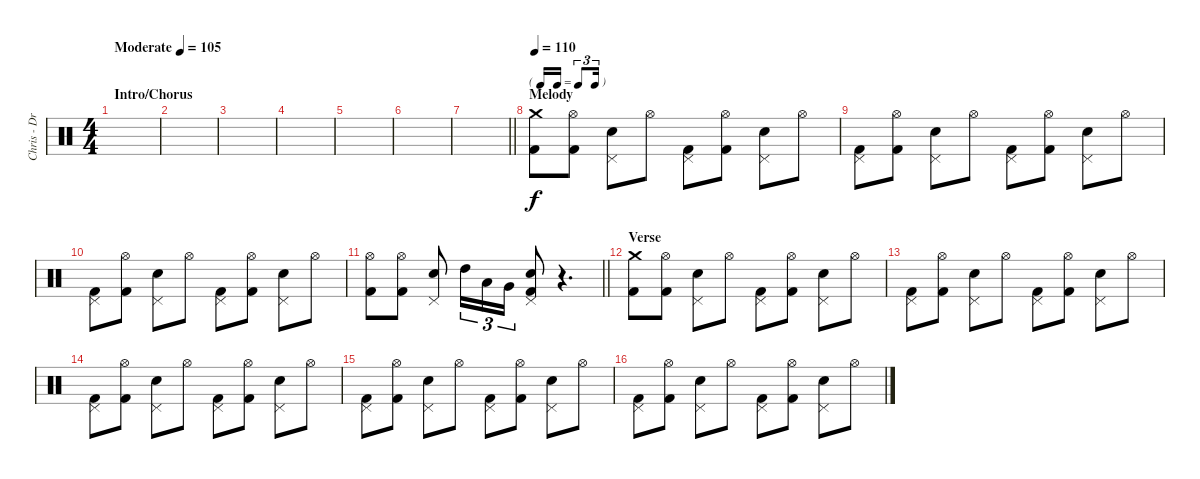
\track ("Chris - Drums" "Chris - Dr") {instrument percussion}
\staff {score}
\articulation defaults
\ts (4 4)
\section ("" "Intro/Chorus")
\tempo (105 "Moderate")
\clef neutral
\ks c
|
|
|
|
|
|
\barLineRight lightlight
|
\tf triplet16th
\section ("" "Melody")
\tempo 110
("Crash medium (hit)" "Kick (hit) 2").8 ("Hi-Hat (open)" "Kick (hit) 2").8 ("Pedal Hi-Hat (hit)" "Electric Snare (hit)").8 "Hi-Hat (open)".8 ("Pedal Hi-Hat (hit)" "Kick (hit) 2").8 ("Hi-Hat (open)" "Kick (hit) 2").8 ("Pedal Hi-Hat (hit)" "Electric Snare (hit)").8 "Hi-Hat (open)".8 |
("Pedal Hi-Hat (hit)" "Kick (hit) 2").8 ("Hi-Hat (open)" "Kick (hit) 2").8 ("Pedal Hi-Hat (hit)" "Electric Snare (hit)").8 "Hi-Hat (open)".8 ("Pedal Hi-Hat (hit)" "Kick (hit) 2").8 ("Hi-Hat (open)" "Kick (hit) 2").8 ("Pedal Hi-Hat (hit)" "Electric Snare (hit)").8 "Hi-Hat (open)".8 |
("Pedal Hi-Hat (hit)" "Kick (hit) 2").8 ("Hi-Hat (open)" "Kick (hit) 2").8 ("Pedal Hi-Hat (hit)" "Electric Snare (hit)").8 "Hi-Hat (open)".8 ("Pedal Hi-Hat (hit)" "Kick (hit) 2").8 ("Hi-Hat (open)" "Kick (hit) 2").8 ("Pedal Hi-Hat (hit)" "Electric Snare (hit)").8 "Hi-Hat (open)".8 |
\barLineRight lightlight
("Hi-Hat (open)" "Kick (hit) 2").8 ("Hi-Hat (open)" "Kick (hit) 2").8 ("Pedal Hi-Hat (hit)" "Electric Snare (hit)").8 "High Tom (hit)".16{tu (3 2)} "Low Tom (hit)".16{tu (3 2)} "Very Low Tom (hit)".16{tu (3 2)} ("Pedal Hi-Hat (hit)" "Electric Snare (hit)" "Kick (hit) 2").8 r.4{d} |
\section ("" "Verse")
("Crash medium (hit)" "Kick (hit) 2").8 ("Hi-Hat (open)" "Kick (hit) 2").8 ("Pedal Hi-Hat (hit)" "Electric Snare (hit)").8 "Hi-Hat (open)".8 ("Pedal Hi-Hat (hit)" "Kick (hit) 2").8 ("Hi-Hat (open)" "Kick (hit) 2").8 ("Pedal Hi-Hat (hit)" "Electric Snare (hit)").8 "Hi-Hat (open)".8 |
("Pedal Hi-Hat (hit)" "Kick (hit) 2").8 ("Hi-Hat (open)" "Kick (hit) 2").8 ("Pedal Hi-Hat (hit)" "Electric Snare (hit)").8 "Hi-Hat (open)".8 ("Pedal Hi-Hat (hit)" "Kick (hit) 2").8 ("Hi-Hat (open)" "Kick (hit) 2").8 ("Pedal Hi-Hat (hit)" "Electric Snare (hit)").8 "Hi-Hat (open)".8 |
("Pedal Hi-Hat (hit)" "Kick (hit) 2").8 ("Hi-Hat (open)" "Kick (hit) 2").8 ("Pedal Hi-Hat (hit)" "Electric Snare (hit)").8 "Hi-Hat (open)".8 ("Pedal Hi-Hat (hit)" "Kick (hit) 2").8 ("Hi-Hat (open)" "Kick (hit) 2").8 ("Pedal Hi-Hat (hit)" "Electric Snare (hit)").8 "Hi-Hat (open)".8 |
("Pedal Hi-Hat (hit)" "Kick (hit) 2").8 ("Hi-Hat (open)" "Kick (hit) 2").8 ("Pedal Hi-Hat (hit)" "Electric Snare (hit)").8 "Hi-Hat (open)".8 ("Pedal Hi-Hat (hit)" "Kick (hit) 2").8 ("Hi-Hat (open)" "Kick (hit) 2").8 ("Pedal Hi-Hat (hit)" "Electric Snare (hit)").8 "Hi-Hat (open)".8 |
("Pedal Hi-Hat (hit)" "Kick (hit) 2").8 ("Hi-Hat (open)" "Kick (hit) 2").8 ("Pedal Hi-Hat (hit)" "Electric Snare (hit)").8 "Hi-Hat (open)".8 ("Pedal Hi-Hat (hit)" "Kick (hit) 2").8 ("Hi-Hat (open)" "Kick (hit) 2").8 ("Pedal Hi-Hat (hit)" "Electric Snare (hit)").8 "Hi-Hat (open)".8
